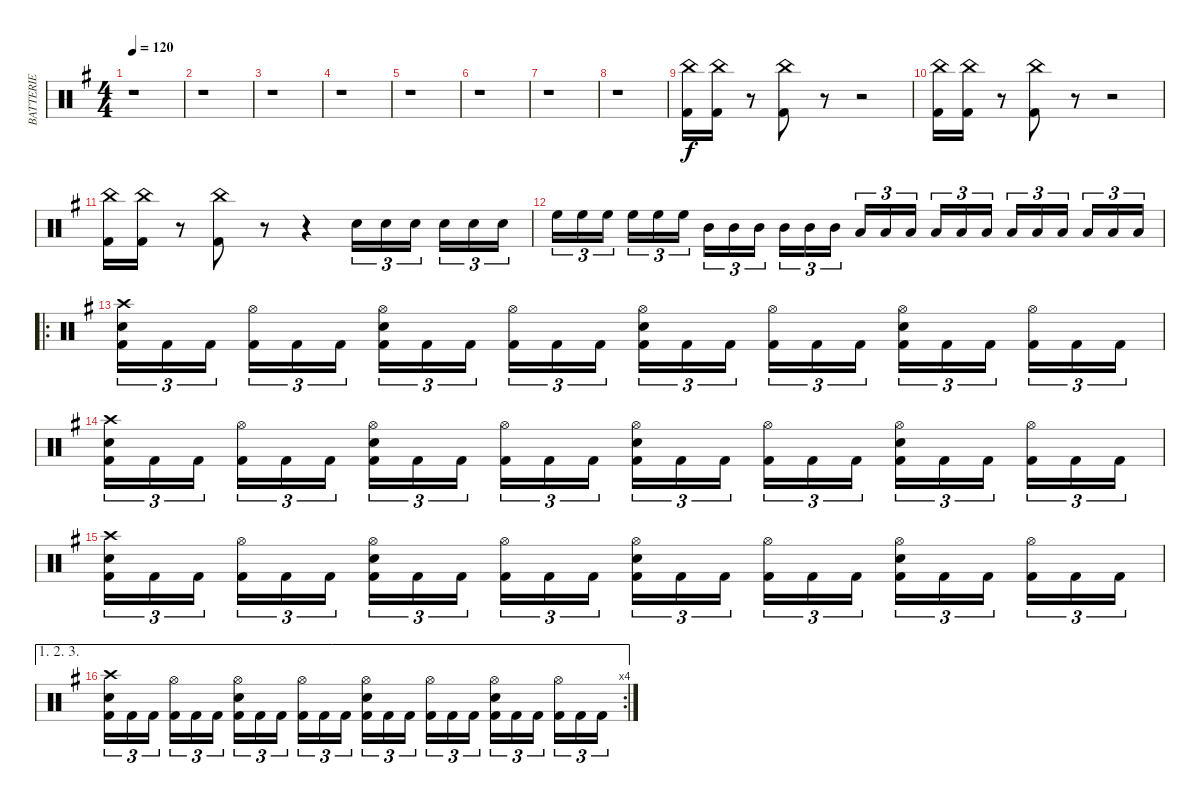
\track ("BATTERIE" "BATTERIE") {instrument percussion}
\staff {score}
\articulation defaults
\ts (4 4)
\tempo 120
\clef neutral
\ks g
r.1{dy f} |
r.1 |
r.1 |
r.1 |
r.1 |
r.1 |
r.1 |
r.1 |
("China (hit)" "Kick (hit) 2").16 ("China (hit)" "Kick (hit) 2").16 r.8 ("China (hit)" "Kick (hit) 2").8 r.8 r.2 |
("China (hit)" "Kick (hit) 2").16 ("China (hit)" "Kick (hit) 2").16 r.8 ("China (hit)" "Kick (hit) 2").8 r.8 r.2 |
("China (hit)" "Kick (hit) 2").16 ("China (hit)" "Kick (hit) 2").16 r.8 ("China (hit)" "Kick (hit) 2").8 r.8 r.4 "Snare (hit) 2".16{tu (3 2)} "Snare (hit) 2".16{tu (3 2)} "Snare (hit) 2".16{tu (3 2)} "Snare (hit) 2".16{tu (3 2)} "Snare (hit) 2".16{tu (3 2)} "Snare (hit) 2".16{tu (3 2)} |
"High Floor Tom (hit)".16{tu (3 2)} "High Floor Tom (hit)".16{tu (3 2)} "High Floor Tom (hit)".16{tu (3 2)} "High Floor Tom (hit)".16{tu (3 2)} "High Floor Tom (hit)".16{tu (3 2)} "High Floor Tom (hit)".16{tu (3 2)} "Mid Tom (hit)".16{tu (3 2)} "Mid Tom (hit)".16{tu (3 2)} "Mid Tom (hit)".16{tu (3 2)} "Mid Tom (hit)".16{tu (3 2)} "Mid Tom (hit)".16{tu (3 2)} "Mid Tom (hit)".16{tu (3 2)} "Low Tom (hit)".16{tu (3 2)} "Low Tom (hit)".16{tu (3 2)} "Low Tom (hit)".16{tu (3 2)} "Low Tom (hit)".16{tu (3 2)} "Low Tom (hit)".16{tu (3 2)} "Low Tom (hit)".16{tu (3 2)} "Low Floor Tom (hit)".16{tu (3 2)} "Low Floor Tom (hit)".16{tu (3 2)} "Low Floor Tom (hit)".16{tu (3 2)} "Low Floor Tom (hit)".16{tu (3 2)} "Low Floor Tom (hit)".16{tu (3 2)} "Low Floor Tom (hit)".16{tu (3 2)} |
\ro
("Crash high (hit)" "Snare (hit) 2" "Kick (hit) 2").16{tu (3 2)} "Kick (hit) 2".16{tu (3 2)} "Kick (hit) 2".16{tu (3 2)} ("Hi-Hat (open)" "Kick (hit) 2").16{tu (3 2)} "Kick (hit) 2".16{tu (3 2)} "Kick (hit) 2".16{tu (3 2)} ("Hi-Hat (open)" "Snare (hit) 2" "Kick (hit) 2").16{tu (3 2)} "Kick (hit) 2".16{tu (3 2)} "Kick (hit) 2".16{tu (3 2)} ("Hi-Hat (open)" "Kick (hit) 2").16{tu (3 2)} "Kick (hit) 2".16{tu (3 2)} "Kick (hit) 2".16{tu (3 2)} ("Hi-Hat (open)" "Snare (hit) 2" "Kick (hit) 2").16{tu (3 2)} "Kick (hit) 2".16{tu (3 2)} "Kick (hit) 2".16{tu (3 2)} ("Hi-Hat (open)" "Kick (hit) 2").16{tu (3 2)} "Kick (hit) 2".16{tu (3 2)} "Kick (hit) 2".16{tu (3 2)} ("Hi-Hat (open)" "Snare (hit) 2" "Kick (hit) 2").16{tu (3 2)} "Kick (hit) 2".16{tu (3 2)} "Kick (hit) 2".16{tu (3 2)} ("Hi-Hat (open)" "Kick (hit) 2").16{tu (3 2)} "Kick (hit) 2".16{tu (3 2)} "Kick (hit) 2".16{tu (3 2)} |
("Crash high (hit)" "Snare (hit) 2" "Kick (hit) 2").16{tu (3 2)} "Kick (hit) 2".16{tu (3 2)} "Kick (hit) 2".16{tu (3 2)} ("Hi-Hat (open)" "Kick (hit) 2").16{tu (3 2)} "Kick (hit) 2".16{tu (3 2)} "Kick (hit) 2".16{tu (3 2)} ("Hi-Hat (open)" "Snare (hit) 2" "Kick (hit) 2").16{tu (3 2)} "Kick (hit) 2".16{tu (3 2)} "Kick (hit) 2".16{tu (3 2)} ("Hi-Hat (open)" "Kick (hit) 2").16{tu (3 2)} "Kick (hit) 2".16{tu (3 2)} "Kick (hit) 2".16{tu (3 2)} ("Hi-Hat (open)" "Snare (hit) 2" "Kick (hit) 2").16{tu (3 2)} "Kick (hit) 2".16{tu (3 2)} "Kick (hit) 2".16{tu (3 2)} ("Hi-Hat (open)" "Kick (hit) 2").16{tu (3 2)} "Kick (hit) 2".16{tu (3 2)} "Kick (hit) 2".16{tu (3 2)} ("Hi-Hat (open)" "Snare (hit) 2" "Kick (hit) 2").16{tu (3 2)} "Kick (hit) 2".16{tu (3 2)} "Kick (hit) 2".16{tu (3 2)} ("Hi-Hat (open)" "Kick (hit) 2").16{tu (3 2)} "Kick (hit) 2".16{tu (3 2)} "Kick (hit) 2".16{tu (3 2)} |
("Crash high (hit)" "Snare (hit) 2" "Kick (hit) 2").16{tu (3 2)} "Kick (hit) 2".16{tu (3 2)} "Kick (hit) 2".16{tu (3 2)} ("Hi-Hat (open)" "Kick (hit) 2").16{tu (3 2)} "Kick (hit) 2".16{tu (3 2)} "Kick (hit) 2".16{tu (3 2)} ("Hi-Hat (open)" "Snare (hit) 2" "Kick (hit) 2").16{tu (3 2)} "Kick (hit) 2".16{tu (3 2)} "Kick (hit) 2".16{tu (3 2)} ("Hi-Hat (open)" "Kick (hit) 2").16{tu (3 2)} "Kick (hit) 2".16{tu (3 2)} "Kick (hit) 2".16{tu (3 2)} ("Hi-Hat (open)" "Snare (hit) 2" "Kick (hit) 2").16{tu (3 2)} "Kick (hit) 2".16{tu (3 2)} "Kick (hit) 2".16{tu (3 2)} ("Hi-Hat (open)" "Kick (hit) 2").16{tu (3 2)} "Kick (hit) 2".16{tu (3 2)} "Kick (hit) 2".16{tu (3 2)} ("Hi-Hat (open)" "Snare (hit) 2" "Kick (hit) 2").16{tu (3 2)} "Kick (hit) 2".16{tu (3 2)} "Kick (hit) 2".16{tu (3 2)} ("Hi-Hat (open)" "Kick (hit) 2").16{tu (3 2)} "Kick (hit) 2".16{tu (3 2)} "Kick (hit) 2".16{tu (3 2)} |
\ae (1 2 3)
\rc 4
("Crash high (hit)" "Snare (hit) 2" "Kick (hit) 2").16{tu (3 2)} "Kick (hit) 2".16{tu (3 2)} "Kick (hit) 2".16{tu (3 2)} ("Hi-Hat (open)" "Kick (hit) 2").16{tu (3 2)} "Kick (hit) 2".16{tu (3 2)} "Kick (hit) 2".16{tu (3 2)} ("Hi-Hat (open)" "Snare (hit) 2" "Kick (hit) 2").16{tu (3 2)} "Kick (hit) 2".16{tu (3 2)} "Kick (hit) 2".16{tu (3 2)} ("Hi-Hat (open)" "Kick (hit) 2").16{tu (3 2)} "Kick (hit) 2".16{tu (3 2)} "Kick (hit) 2".16{tu (3 2)} ("Hi-Hat (open)" "Snare (hit) 2" "Kick (hit) 2").16{tu (3 2)} "Kick (hit) 2".16{tu (3 2)} "Kick (hit) 2".16{tu (3 2)} ("Hi-Hat (open)" "Kick (hit) 2").16{tu (3 2)} "Kick (hit) 2".16{tu (3 2)} "Kick (hit) 2".16{tu (3 2)} ("Hi-Hat (open)" "Snare (hit) 2" "Kick (hit) 2").16{tu (3 2)} "Kick (hit) 2".16{tu (3 2)} "Kick (hit) 2".16{tu (3 2)} ("Hi-Hat (open)" "Kick (hit) 2").16{tu (3 2)} "Kick (hit) 2".16{tu (3 2)} "Kick (hit) 2".16{tu (3 2)}
